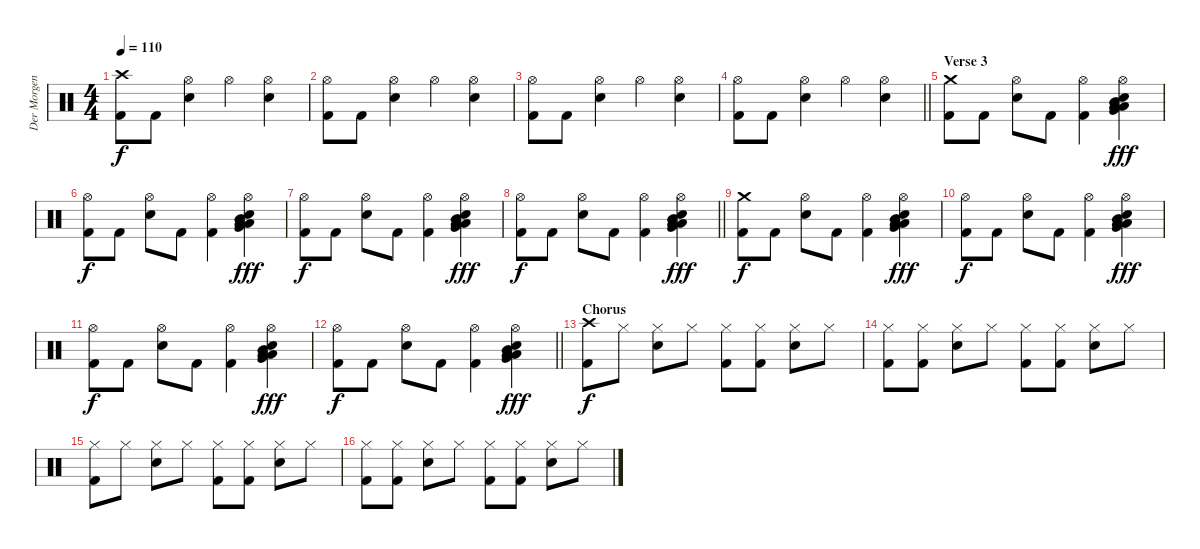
\track ("Der Morgenstern" "Der Morgen") {instrument percussion}
\staff {score}
\articulation defaults
\ts (4 4)
\tempo 110
\clef neutral
\ks c
("Crash high (hit)" "Kick (hit) 2").8{dy f} "Kick (hit) 2".8 ("Hi-Hat (open)" "Snare (hit) 2").4 "Hi-Hat (open)".4 ("Hi-Hat (open)" "Snare (hit) 2").4 |
("Hi-Hat (open)" "Kick (hit) 2").8 "Kick (hit) 2".8 ("Hi-Hat (open)" "Snare (hit) 2").4 "Hi-Hat (open)".4 ("Hi-Hat (open)" "Snare (hit) 2").4 |
("Hi-Hat (open)" "Kick (hit) 2").8 "Kick (hit) 2".8 ("Hi-Hat (open)" "Snare (hit) 2").4 "Hi-Hat (open)".4 ("Hi-Hat (open)" "Snare (hit) 2").4 |
\barLineRight lightlight
("Hi-Hat (open)" "Kick (hit) 2").8 "Kick (hit) 2".8 ("Hi-Hat (open)" "Snare (hit) 2").4 "Hi-Hat (open)".4 ("Hi-Hat (open)" "Snare (hit) 2").4 |
\section ("" "Verse 3")
("Crash medium (hit)" "Kick (hit) 2").8 "Kick (hit) 2".8 ("Hi-Hat (open)" "Snare (hit) 2").8 "Kick (hit) 2".8 ("Hi-Hat (open)" "Kick (hit) 2").4 ("Hi-Hat (open)" "Mid Tom (hit)" "Low Floor Tom (hit)" "Very Low Tom (hit)" "Snare (hit) 2" "Low Tom (hit)").4{dy fff} |
("Hi-Hat (open)" "Kick (hit) 2").8{dy f} "Kick (hit) 2".8 ("Hi-Hat (open)" "Snare (hit) 2").8 "Kick (hit) 2".8 ("Hi-Hat (open)" "Kick (hit) 2").4 ("Hi-Hat (open)" "Mid Tom (hit)" "Low Floor Tom (hit)" "Very Low Tom (hit)" "Snare (hit) 2" "Low Tom (hit)").4{dy fff} |
("Hi-Hat (open)" "Kick (hit) 2").8{dy f} "Kick (hit) 2".8 ("Hi-Hat (open)" "Snare (hit) 2").8 "Kick (hit) 2".8 ("Hi-Hat (open)" "Kick (hit) 2").4 ("Hi-Hat (open)" "Mid Tom (hit)" "Low Floor Tom (hit)" "Very Low Tom (hit)" "Snare (hit) 2" "Low Tom (hit)").4{dy fff} |
\barLineRight lightlight
("Hi-Hat (open)" "Kick (hit) 2").8{dy f} "Kick (hit) 2".8 ("Hi-Hat (open)" "Snare (hit) 2").8 "Kick (hit) 2".8 ("Hi-Hat (open)" "Kick (hit) 2").4 ("Hi-Hat (open)" "Mid Tom (hit)" "Low Floor Tom (hit)" "Very Low Tom (hit)" "Snare (hit) 2" "Low Tom (hit)").4{dy fff} |
("Crash medium (hit)" "Kick (hit) 2").8{dy f} "Kick (hit) 2".8 ("Hi-Hat (open)" "Snare (hit) 2").8 "Kick (hit) 2".8 ("Hi-Hat (open)" "Kick (hit) 2").4 ("Hi-Hat (open)" "Mid Tom (hit)" "Low Floor Tom (hit)" "Very Low Tom (hit)" "Snare (hit) 2" "Low Tom (hit)").4{dy fff} |
("Hi-Hat (open)" "Kick (hit) 2").8{dy f} "Kick (hit) 2".8 ("Hi-Hat (open)" "Snare (hit) 2").8 "Kick (hit) 2".8 ("Hi-Hat (open)" "Kick (hit) 2").4 ("Hi-Hat (open)" "Mid Tom (hit)" "Low Floor Tom (hit)" "Very Low Tom (hit)" "Snare (hit) 2" "Low Tom (hit)").4{dy fff} |
("Hi-Hat (open)" "Kick (hit) 2").8{dy f} "Kick (hit) 2".8 ("Hi-Hat (open)" "Snare (hit) 2").8 "Kick (hit) 2".8 ("Hi-Hat (open)" "Kick (hit) 2").4 ("Hi-Hat (open)" "Mid Tom (hit)" "Low Floor Tom (hit)" "Very Low Tom (hit)" "Snare (hit) 2" "Low Tom (hit)").4{dy fff} |
\barLineRight lightlight
("Hi-Hat (open)" "Kick (hit) 2").8{dy f} "Kick (hit) 2".8 ("Hi-Hat (open)" "Snare (hit) 2").8 "Kick (hit) 2".8 ("Hi-Hat (open)" "Kick (hit) 2").4 ("Hi-Hat (open)" "Mid Tom (hit)" "Low Floor Tom (hit)" "Very Low Tom (hit)" "Snare (hit) 2" "Low Tom (hit)").4{dy fff} |
\section ("" "Chorus")
("Crash high (hit)" "Kick (hit) 2").8{dy f} "Hi-Hat (closed)".8 ("Hi-Hat (closed)" "Snare (hit) 2").8 "Hi-Hat (closed)".8 ("Hi-Hat (closed)" "Kick (hit) 2").8 ("Hi-Hat (closed)" "Kick (hit) 2").8 ("Hi-Hat (closed)" "Snare (hit) 2").8 "Hi-Hat (closed)".8 |
("Hi-Hat (closed)" "Kick (hit) 2").8 ("Hi-Hat (closed)" "Kick (hit) 2").8 ("Hi-Hat (closed)" "Snare (hit) 2").8 "Hi-Hat (closed)".8 ("Hi-Hat (closed)" "Kick (hit) 2").8 ("Hi-Hat (closed)" "Kick (hit) 2").8 ("Hi-Hat (closed)" "Snare (hit) 2").8 "Hi-Hat (closed)".8 |
("Hi-Hat (closed)" "Kick (hit) 2").8 "Hi-Hat (closed)".8 ("Hi-Hat (closed)" "Snare (hit) 2").8 "Hi-Hat (closed)".8 ("Hi-Hat (closed)" "Kick (hit) 2").8 ("Hi-Hat (closed)" "Kick (hit) 2").8 ("Hi-Hat (closed)" "Snare (hit) 2").8 "Hi-Hat (closed)".8 |
("Hi-Hat (closed)" "Kick (hit) 2").8 ("Hi-Hat (closed)" "Kick (hit) 2").8 ("Hi-Hat (closed)" "Snare (hit) 2").8 "Hi-Hat (closed)".8 ("Hi-Hat (closed)" "Kick (hit) 2").8 ("Hi-Hat (closed)" "Kick (hit) 2").8 ("Hi-Hat (closed)" "Snare (hit) 2").8 "Hi-Hat (closed)".8
